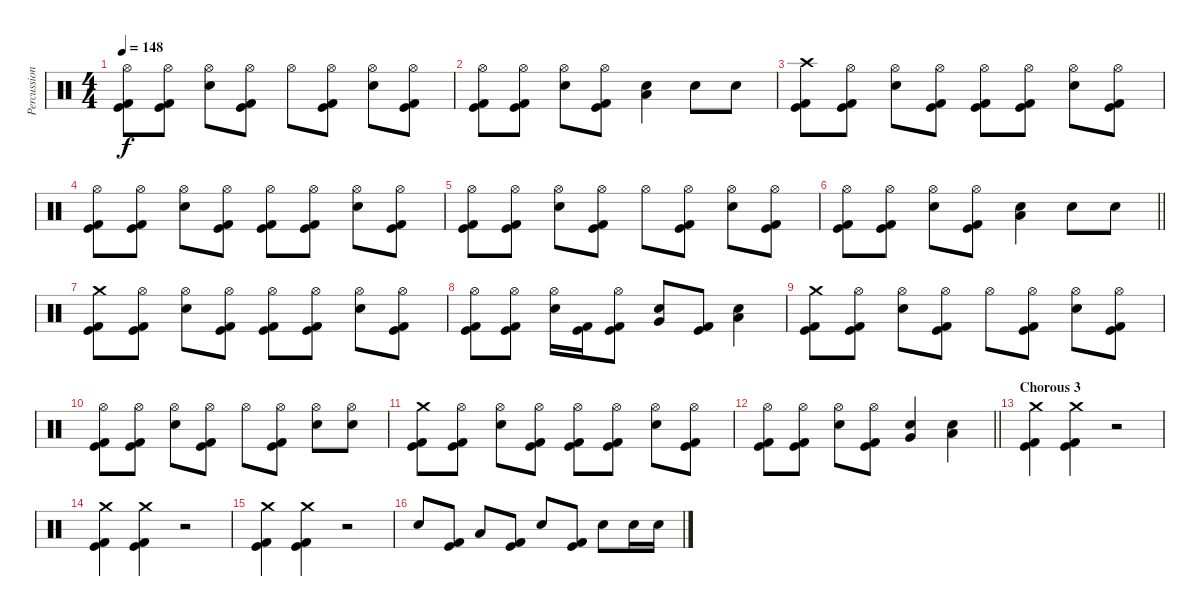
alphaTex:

\track ("Percussion" "Percussion") {instrument percussion}
\staff {score}
\articulation defaults
\ts (4 4)
\tempo 148
\clef neutral
\ks c
("Hi-Hat (open)" "Kick (hit)" "Kick (hit) 2").8{dy f} ("Hi-Hat (open)" "Kick (hit)" "Kick (hit) 2").8 ("Hi-Hat (open)" "Electric Snare (hit)").8 ("Hi-Hat (open)" "Kick (hit)" "Kick (hit) 2").8 "Hi-Hat (open)".8 ("Hi-Hat (open)" "Kick (hit)" "Kick (hit) 2").8 ("Hi-Hat (open)" "Electric Snare (hit)").8 ("Hi-Hat (open)" "Kick (hit)" "Kick (hit) 2").8 |
("Hi-Hat (open)" "Kick (hit)" "Kick (hit) 2").8 ("Hi-Hat (open)" "Kick (hit)" "Kick (hit) 2").8 ("Hi-Hat (open)" "Electric Snare (hit)").8 ("Hi-Hat (open)" "Kick (hit)" "Kick (hit) 2").8 ("Low Tom (hit)" "Electric Snare (hit)").4 "Electric Snare (hit)".8 "Electric Snare (hit)".8 |
("Crash high (hit)" "Kick (hit)" "Kick (hit) 2").8 ("Hi-Hat (open)" "Kick (hit)" "Kick (hit) 2").8 ("Hi-Hat (open)" "Electric Snare (hit)").8 ("Hi-Hat (open)" "Kick (hit)" "Kick (hit) 2").8 ("Hi-Hat (open)" "Kick (hit)" "Kick (hit) 2").8 ("Hi-Hat (open)" "Kick (hit)" "Kick (hit) 2").8 ("Hi-Hat (open)" "Electric Snare (hit)").8 ("Hi-Hat (open)" "Kick (hit)" "Kick (hit) 2").8 |
("Hi-Hat (open)" "Kick (hit)" "Kick (hit) 2").8 ("Hi-Hat (open)" "Kick (hit)" "Kick (hit) 2").8 ("Hi-Hat (open)" "Electric Snare (hit)").8 ("Hi-Hat (open)" "Kick (hit)" "Kick (hit) 2").8 ("Hi-Hat (open)" "Kick (hit)" "Kick (hit) 2").8 ("Hi-Hat (open)" "Kick (hit)" "Kick (hit) 2").8 ("Hi-Hat (open)" "Electric Snare (hit)").8 ("Hi-Hat (open)" "Kick (hit)" "Kick (hit) 2").8 |
("Hi-Hat (open)" "Kick (hit)" "Kick (hit) 2").8 ("Hi-Hat (open)" "Kick (hit)" "Kick (hit) 2").8 ("Hi-Hat (open)" "Electric Snare (hit)").8 ("Hi-Hat (open)" "Kick (hit)" "Kick (hit) 2").8 "Hi-Hat (open)".8 ("Hi-Hat (open)" "Kick (hit)" "Kick (hit) 2").8 ("Hi-Hat (open)" "Electric Snare (hit)").8 ("Hi-Hat (open)" "Kick (hit)" "Kick (hit) 2").8 |
\barLineRight lightlight
("Hi-Hat (open)" "Kick (hit)" "Kick (hit) 2").8 ("Hi-Hat (open)" "Kick (hit)" "Kick (hit) 2").8 ("Hi-Hat (open)" "Electric Snare (hit)").8 ("Hi-Hat (open)" "Kick (hit)" "Kick (hit) 2").8 ("Low Tom (hit)" "Electric Snare (hit)").4 "Electric Snare (hit)".8 "Electric Snare (hit)".8 |
\section ("" "")
("Crash medium (hit)" "Kick (hit)" "Kick (hit) 2").8 ("Hi-Hat (open)" "Kick (hit)" "Kick (hit) 2").8 ("Hi-Hat (open)" "Electric Snare (hit)").8 ("Hi-Hat (open)" "Kick (hit)" "Kick (hit) 2").8 ("Hi-Hat (open)" "Kick (hit)" "Kick (hit) 2").8 ("Hi-Hat (open)" "Kick (hit)" "Kick (hit) 2").8 ("Hi-Hat (open)" "Electric Snare (hit)").8 ("Hi-Hat (open)" "Kick (hit)" "Kick (hit) 2").8 |
("Hi-Hat (open)" "Kick (hit)" "Kick (hit) 2").8 ("Hi-Hat (open)" "Kick (hit)" "Kick (hit) 2").8 ("Hi-Hat (open)" "Electric Snare (hit)").16 ("Kick (hit)" "Kick (hit) 2").16 ("Hi-Hat (open)" "Kick (hit)" "Kick (hit) 2").8 ("Electric Snare (hit)" "Very Low Tom (hit)").8 ("Kick (hit)" "Kick (hit) 2").8 ("Electric Snare (hit)" "Low Floor Tom (hit)").4 |
("Crash medium (hit)" "Kick (hit)" "Kick (hit) 2").8 ("Hi-Hat (open)" "Kick (hit)" "Kick (hit) 2").8 ("Hi-Hat (open)" "Electric Snare (hit)").8 ("Hi-Hat (open)" "Kick (hit)" "Kick (hit) 2").8 "Hi-Hat (open)".8 ("Hi-Hat (open)" "Kick (hit)" "Kick (hit) 2").8 ("Hi-Hat (open)" "Electric Snare (hit)").8 ("Hi-Hat (open)" "Kick (hit)" "Kick (hit) 2").8 |
("Hi-Hat (open)" "Kick (hit)" "Kick (hit) 2").8 ("Hi-Hat (open)" "Kick (hit)" "Kick (hit) 2").8 ("Hi-Hat (open)" "Electric Snare (hit)").8 ("Hi-Hat (open)" "Kick (hit)" "Kick (hit) 2").8 "Hi-Hat (open)".8 ("Hi-Hat (open)" "Kick (hit)" "Kick (hit) 2").8 ("Hi-Hat (open)" "Electric Snare (hit)").8 ("Hi-Hat (open)" "Electric Snare (hit)").8 |
("Crash medium (hit)" "Kick (hit)" "Kick (hit) 2").8 ("Hi-Hat (open)" "Kick (hit)" "Kick (hit) 2").8 ("Hi-Hat (open)" "Electric Snare (hit)").8 ("Hi-Hat (open)" "Kick (hit)" "Kick (hit) 2").8 ("Hi-Hat (open)" "Kick (hit)" "Kick (hit) 2").8 ("Hi-Hat (open)" "Kick (hit)" "Kick (hit) 2").8 ("Hi-Hat (open)" "Electric Snare (hit)").8 ("Hi-Hat (open)" "Kick (hit)" "Kick (hit) 2").8 |
\barLineRight lightlight
("Hi-Hat (open)" "Kick (hit)" "Kick (hit) 2").8 ("Hi-Hat (open)" "Kick (hit)" "Kick (hit) 2").8 ("Hi-Hat (open)" "Electric Snare (hit)").8 ("Hi-Hat (open)" "Kick (hit)" "Kick (hit) 2").8 ("Electric Snare (hit)" "Very Low Tom (hit)").4 ("Electric Snare (hit)" "Low Floor Tom (hit)").4 |
\section ("" "Chorous 3")
("Crash medium (hit)" "Kick (hit)" "Kick (hit) 2").4 ("Crash medium (hit)" "Kick (hit)" "Kick (hit) 2").4 r.2 |
("Crash medium (hit)" "Kick (hit)" "Kick (hit) 2").4 ("Crash medium (hit)" "Kick (hit)" "Kick (hit) 2").4 r.2 |
("Crash medium (hit)" "Kick (hit)" "Kick (hit) 2").4 ("Crash medium (hit)" "Kick (hit)" "Kick (hit) 2").4 r.2 |
"Electric Snare (hit)".8 ("Kick (hit)" "Kick (hit) 2").8 "Low Floor Tom (hit)".8 ("Kick (hit)" "Kick (hit) 2").8 "Electric Snare (hit)".8 ("Kick (hit)" "Kick (hit) 2").8 "Electric Snare (hit)".8 "Electric Snare (hit)".16 "Electric Snare (hit)".16
